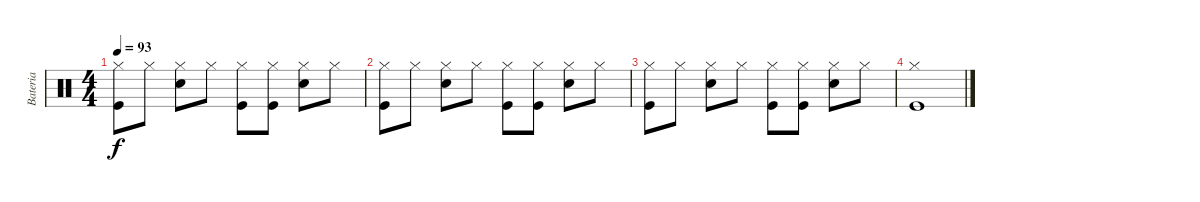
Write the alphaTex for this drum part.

\track ("Bateria" "Bateria") {instrument percussion}
\staff {score}
\articulation defaults
\ts (4 4)
\tempo 93
\clef neutral
\ks c
("Hi-Hat (closed)" "Kick (hit)").8{dy f} "Hi-Hat (closed)".8 ("Hi-Hat (closed)" "Snare (hit) 2").8 "Hi-Hat (closed)".8 ("Hi-Hat (closed)" "Kick (hit)").8 ("Hi-Hat (closed)" "Kick (hit)").8 ("Hi-Hat (closed)" "Snare (hit) 2").8 "Hi-Hat (closed)".8 |
("Hi-Hat (closed)" "Kick (hit)").8 "Hi-Hat (closed)".8 ("Hi-Hat (closed)" "Snare (hit) 2").8 "Hi-Hat (closed)".8 ("Hi-Hat (closed)" "Kick (hit)").8 ("Hi-Hat (closed)" "Kick (hit)").8 ("Hi-Hat (closed)" "Snare (hit) 2").8 "Hi-Hat (closed)".8 |
("Hi-Hat (closed)" "Kick (hit)").8 "Hi-Hat (closed)".8 ("Hi-Hat (closed)" "Snare (hit) 2").8 "Hi-Hat (closed)".8 ("Hi-Hat (closed)" "Kick (hit)").8 ("Hi-Hat (closed)" "Kick (hit)").8 ("Hi-Hat (closed)" "Snare (hit) 2").8 "Hi-Hat (closed)".8 |
("Hi-Hat (closed)" "Kick (hit)").1
